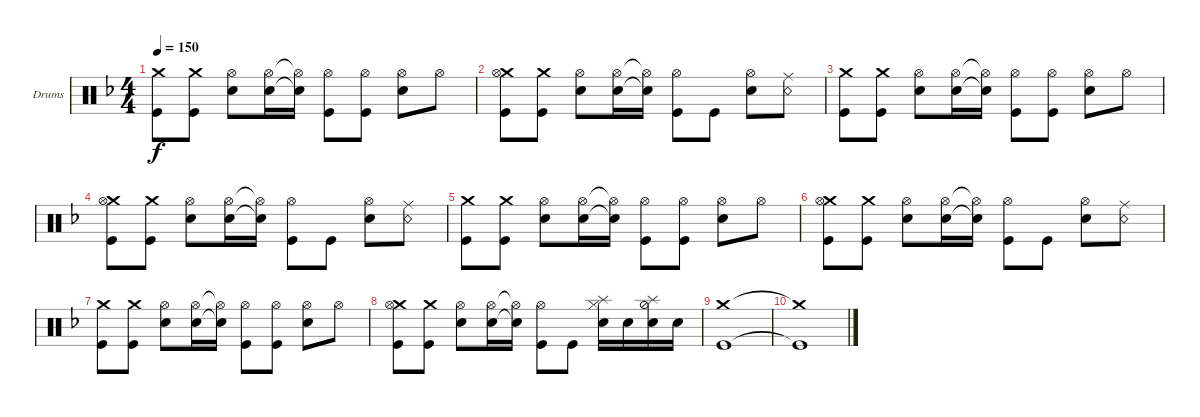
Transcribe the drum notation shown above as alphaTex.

\defaultSystemsLayout 4
\bracketExtendMode groupsimilarinstruments
\firstSystemTrackNameOrientation horizontal
\otherSystemsTrackNameOrientation horizontal
\track ("Шуруп - Ударные" "Drums") {instrument percussion}
\staff {score}
\articulation defaults
\ts (4 4)
\tempo 150
\clef neutral
\ks f
("Kick (hit)" "Crash medium (hit)").8{dy f} ("Kick (hit)" "Crash medium (hit)").8 ("Snare (hit) 2" "Hi-Hat (open)").8 ("Snare (hit) 2" "Hi-Hat (open)").16 ("Snare (hit) 2"{t} "Hi-Hat (open)"{t}).16 ("Kick (hit)" "Hi-Hat (open)").8 ("Kick (hit)" "Hi-Hat (open)").8 ("Snare (hit) 2" "Hi-Hat (open)").8 "Hi-Hat (open)".8 |
("Kick (hit)" "Crash medium (hit)" "Hi-Hat (open)").8 ("Kick (hit)" "Crash medium (hit)").8 ("Snare (hit) 2" "Hi-Hat (open)").8 ("Snare (hit) 2" "Hi-Hat (open)").16 ("Snare (hit) 2"{t} "Hi-Hat (open)"{t}).16 ("Kick (hit)" "Hi-Hat (open)").8 "Kick (hit)".8 ("Snare (hit) 2" "Hi-Hat (open)").8 ("Snare (rim shot)" "Ride (middle)").8 |
("Kick (hit)" "Crash medium (hit)").8 ("Kick (hit)" "Crash medium (hit)").8 ("Snare (hit) 2" "Hi-Hat (open)").8 ("Snare (hit) 2" "Hi-Hat (open)").16 ("Snare (hit) 2"{t} "Hi-Hat (open)"{t}).16 ("Kick (hit)" "Hi-Hat (open)").8 ("Kick (hit)" "Hi-Hat (open)").8 ("Snare (hit) 2" "Hi-Hat (open)").8 "Hi-Hat (open)".8 |
("Kick (hit)" "Crash medium (hit)" "Hi-Hat (open)").8 ("Kick (hit)" "Crash medium (hit)").8 ("Snare (hit) 2" "Hi-Hat (open)").8 ("Snare (hit) 2" "Hi-Hat (open)").16 ("Snare (hit) 2"{t} "Hi-Hat (open)"{t}).16 ("Kick (hit)" "Hi-Hat (open)").8 "Kick (hit)".8 ("Snare (hit) 2" "Hi-Hat (open)").8 ("Snare (rim shot)" "Ride (middle)").8 |
("Kick (hit)" "Crash medium (hit)").8 ("Kick (hit)" "Crash medium (hit)").8 ("Snare (hit) 2" "Hi-Hat (open)").8 ("Snare (hit) 2" "Hi-Hat (open)").16 ("Snare (hit) 2"{t} "Hi-Hat (open)"{t}).16 ("Kick (hit)" "Hi-Hat (open)").8 ("Kick (hit)" "Hi-Hat (open)").8 ("Snare (hit) 2" "Hi-Hat (open)").8 "Hi-Hat (open)".8 |
("Kick (hit)" "Crash medium (hit)" "Hi-Hat (open)").8 ("Kick (hit)" "Crash medium (hit)").8 ("Snare (hit) 2" "Hi-Hat (open)").8 ("Snare (hit) 2" "Hi-Hat (open)").16 ("Snare (hit) 2"{t} "Hi-Hat (open)"{t}).16 ("Kick (hit)" "Hi-Hat (open)").8 "Kick (hit)".8 ("Snare (hit) 2" "Hi-Hat (open)").8 ("Snare (rim shot)" "Ride (middle)").8 |
("Kick (hit)" "Crash medium (hit)").8 ("Kick (hit)" "Crash medium (hit)").8 ("Snare (hit) 2" "Hi-Hat (open)").8 ("Snare (hit) 2" "Hi-Hat (open)").16 ("Snare (hit) 2"{t} "Hi-Hat (open)"{t}).16 ("Kick (hit)" "Hi-Hat (open)").8 ("Kick (hit)" "Hi-Hat (open)").8 ("Snare (hit) 2" "Hi-Hat (open)").8 "Hi-Hat (open)".8 |
("Kick (hit)" "Crash medium (hit)" "Hi-Hat (open)").8 ("Kick (hit)" "Crash medium (hit)").8 ("Snare (hit) 2" "Hi-Hat (open)").8 ("Snare (hit) 2" "Hi-Hat (open)").16 ("Snare (hit) 2"{t} "Hi-Hat (open)"{t}).16 ("Kick (hit)" "Hi-Hat (open)").8 "Kick (hit)".8 ("Snare (hit) 2" "Hi-Hat (closed)" "Splash (hit)").16 "Snare (hit) 2".16 ("Hi-Hat (half)" "Splash (hit)" "Snare (hit) 2").16 "Snare (hit) 2".16 |
("Kick (hit)" "Crash medium (hit)").1 |
("Kick (hit)"{t} "Crash medium (hit)"{t}).1
